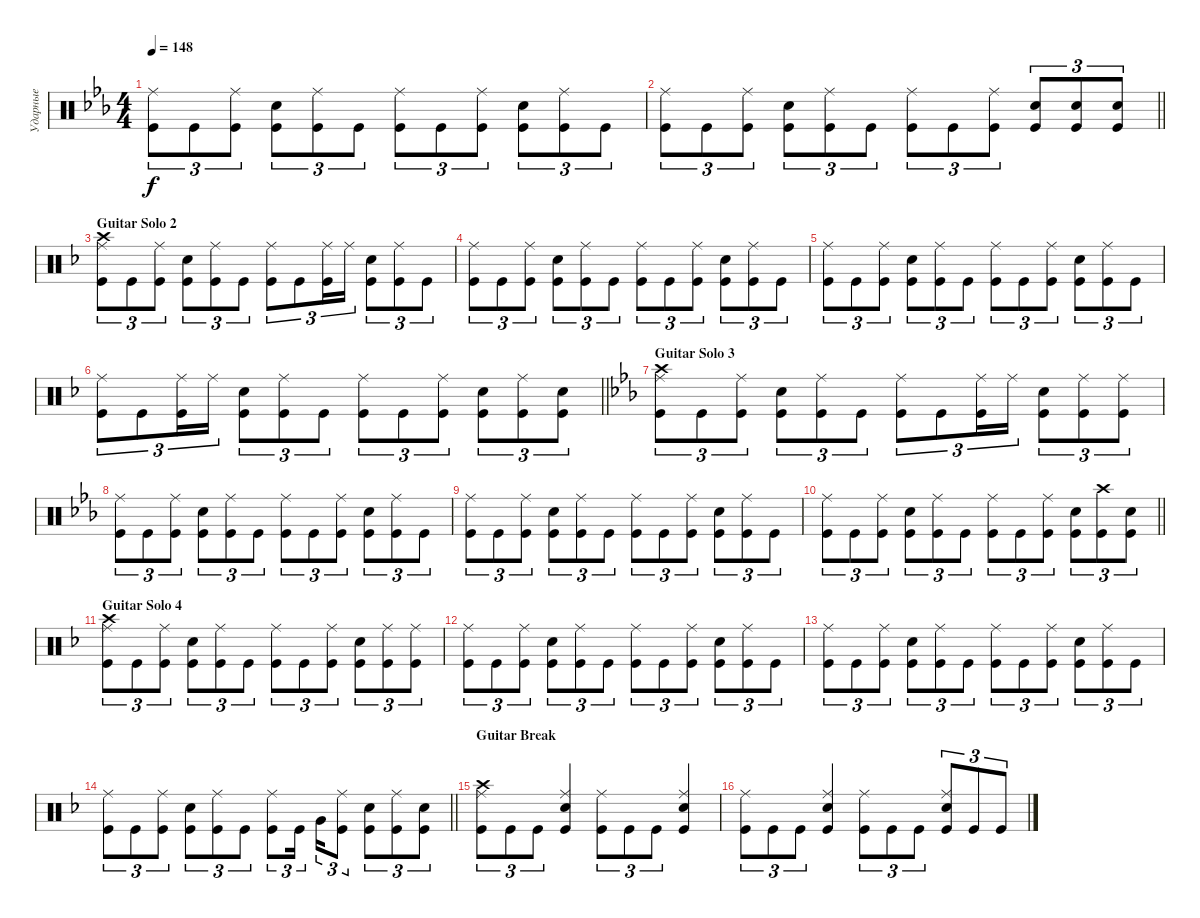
\track ("Ударные" "Ударные") {instrument percussion}
\staff {score}
\articulation defaults
\ts (4 4)
\tempo 148
\clef neutral
\ks cminor
("Kick (hit)" "Ride (middle)").8{tu (3 2) dy f} "Kick (hit)".8{tu (3 2)} ("Kick (hit)" "Ride (middle)").8{tu (3 2)} ("Kick (hit)" "Snare (hit) 2").8{tu (3 2)} ("Kick (hit)" "Ride (middle)").8{tu (3 2)} "Kick (hit)".8{tu (3 2)} ("Kick (hit)" "Ride (middle)").8{tu (3 2)} "Kick (hit)".8{tu (3 2)} ("Kick (hit)" "Ride (middle)").8{tu (3 2)} ("Kick (hit)" "Snare (hit) 2").8{tu (3 2)} ("Kick (hit)" "Ride (middle)").8{tu (3 2)} "Kick (hit)".8{tu (3 2)} |
\barLineRight lightlight
("Kick (hit)" "Ride (middle)").8{tu (3 2)} "Kick (hit)".8{tu (3 2)} ("Kick (hit)" "Ride (middle)").8{tu (3 2)} ("Kick (hit)" "Snare (hit) 2").8{tu (3 2)} ("Kick (hit)" "Ride (middle)").8{tu (3 2)} "Kick (hit)".8{tu (3 2)} ("Kick (hit)" "Ride (middle)").8{tu (3 2)} "Kick (hit)".8{tu (3 2)} ("Kick (hit)" "Ride (middle)").8{tu (3 2)} ("Kick (hit)" "Snare (hit) 2").8{tu (3 2)} ("Kick (hit)" "Snare (hit) 2").8{tu (3 2)} ("Kick (hit)" "Snare (hit) 2").8{tu (3 2)} |
\section ("" "Guitar Solo 2")
\ks dminor
("Kick (hit)" "Ride (middle)" "Crash high (hit)").8{tu (3 2)} "Kick (hit)".8{tu (3 2)} ("Kick (hit)" "Ride (middle)").8{tu (3 2)} ("Kick (hit)" "Snare (hit) 2").8{tu (3 2)} ("Kick (hit)" "Ride (middle)").8{tu (3 2)} "Kick (hit)".8{tu (3 2)} ("Kick (hit)" "Ride (middle)").8{tu (3 2)} "Kick (hit)".8{tu (3 2)} ("Kick (hit)" "Ride (middle)").16{tu (3 2)} "Ride (middle)".16{tu (3 2)} ("Kick (hit)" "Snare (hit) 2").8{tu (3 2)} ("Kick (hit)" "Ride (middle)").8{tu (3 2)} "Kick (hit)".8{tu (3 2)} |
("Kick (hit)" "Ride (middle)").8{tu (3 2)} "Kick (hit)".8{tu (3 2)} ("Kick (hit)" "Ride (middle)").8{tu (3 2)} ("Kick (hit)" "Snare (hit) 2").8{tu (3 2)} ("Kick (hit)" "Ride (middle)").8{tu (3 2)} "Kick (hit)".8{tu (3 2)} ("Kick (hit)" "Ride (middle)").8{tu (3 2)} "Kick (hit)".8{tu (3 2)} ("Kick (hit)" "Ride (middle)").8{tu (3 2)} ("Kick (hit)" "Snare (hit) 2").8{tu (3 2)} ("Kick (hit)" "Ride (middle)").8{tu (3 2)} "Kick (hit)".8{tu (3 2)} |
("Kick (hit)" "Ride (middle)").8{tu (3 2)} "Kick (hit)".8{tu (3 2)} ("Kick (hit)" "Ride (middle)").8{tu (3 2)} ("Kick (hit)" "Snare (hit) 2").8{tu (3 2)} ("Kick (hit)" "Ride (middle)").8{tu (3 2)} "Kick (hit)".8{tu (3 2)} ("Kick (hit)" "Ride (middle)").8{tu (3 2)} "Kick (hit)".8{tu (3 2)} ("Kick (hit)" "Ride (middle)").8{tu (3 2)} ("Kick (hit)" "Snare (hit) 2").8{tu (3 2)} ("Kick (hit)" "Ride (middle)").8{tu (3 2)} "Kick (hit)".8{tu (3 2)} |
\barLineRight lightlight
("Kick (hit)" "Ride (middle)").8{tu (3 2)} "Kick (hit)".8{tu (3 2)} ("Kick (hit)" "Ride (middle)").16{tu (3 2)} "Ride (middle)".16{tu (3 2)} ("Kick (hit)" "Snare (hit) 2").8{tu (3 2)} ("Kick (hit)" "Ride (middle)").8{tu (3 2)} "Kick (hit)".8{tu (3 2)} ("Kick (hit)" "Ride (middle)").8{tu (3 2)} "Kick (hit)".8{tu (3 2)} ("Kick (hit)" "Ride (middle)").8{tu (3 2)} ("Kick (hit)" "Snare (hit) 2").8{tu (3 2)} ("Kick (hit)" "Ride (middle)").8{tu (3 2)} ("Kick (hit)" "Snare (hit) 2").8{tu (3 2)} |
\section ("" "Guitar Solo 3")
\ks cminor
("Kick (hit)" "Ride (middle)" "Crash high (hit)").8{tu (3 2)} "Kick (hit)".8{tu (3 2)} ("Kick (hit)" "Ride (middle)").8{tu (3 2)} ("Kick (hit)" "Snare (hit) 2").8{tu (3 2)} ("Kick (hit)" "Ride (middle)").8{tu (3 2)} "Kick (hit)".8{tu (3 2)} ("Kick (hit)" "Ride (middle)").8{tu (3 2)} "Kick (hit)".8{tu (3 2)} ("Kick (hit)" "Ride (middle)").16{tu (3 2)} "Ride (middle)".16{tu (3 2)} ("Kick (hit)" "Snare (hit) 2").8{tu (3 2)} ("Kick (hit)" "Ride (middle)").8{tu (3 2)} ("Kick (hit)" "Ride (middle)").8{tu (3 2)} |
("Kick (hit)" "Ride (middle)").8{tu (3 2)} "Kick (hit)".8{tu (3 2)} ("Kick (hit)" "Ride (middle)").8{tu (3 2)} ("Kick (hit)" "Snare (hit) 2").8{tu (3 2)} ("Kick (hit)" "Ride (middle)").8{tu (3 2)} "Kick (hit)".8{tu (3 2)} ("Kick (hit)" "Ride (middle)").8{tu (3 2)} "Kick (hit)".8{tu (3 2)} ("Kick (hit)" "Ride (middle)").8{tu (3 2)} ("Kick (hit)" "Snare (hit) 2").8{tu (3 2)} ("Kick (hit)" "Ride (middle)").8{tu (3 2)} "Kick (hit)".8{tu (3 2)} |
("Kick (hit)" "Ride (middle)").8{tu (3 2)} "Kick (hit)".8{tu (3 2)} ("Kick (hit)" "Ride (middle)").8{tu (3 2)} ("Kick (hit)" "Snare (hit) 2").8{tu (3 2)} ("Kick (hit)" "Ride (middle)").8{tu (3 2)} "Kick (hit)".8{tu (3 2)} ("Kick (hit)" "Ride (middle)").8{tu (3 2)} "Kick (hit)".8{tu (3 2)} ("Kick (hit)" "Ride (middle)").8{tu (3 2)} ("Kick (hit)" "Snare (hit) 2").8{tu (3 2)} ("Kick (hit)" "Ride (middle)").8{tu (3 2)} "Kick (hit)".8{tu (3 2)} |
\barLineRight lightlight
("Kick (hit)" "Ride (middle)").8{tu (3 2)} "Kick (hit)".8{tu (3 2)} ("Kick (hit)" "Ride (middle)").8{tu (3 2)} ("Kick (hit)" "Snare (hit) 2").8{tu (3 2)} ("Kick (hit)" "Ride (middle)").8{tu (3 2)} "Kick (hit)".8{tu (3 2)} ("Kick (hit)" "Ride (middle)").8{tu (3 2)} "Kick (hit)".8{tu (3 2)} ("Kick (hit)" "Ride (middle)").8{tu (3 2)} ("Kick (hit)" "Snare (hit) 2").8{tu (3 2)} ("Kick (hit)" "Crash high (hit)").8{tu (3 2)} ("Kick (hit)" "Snare (hit) 2").8{tu (3 2)} |
\section ("" "Guitar Solo 4")
\ks dminor
("Kick (hit)" "Ride (middle)" "Crash high (hit)").8{tu (3 2)} "Kick (hit)".8{tu (3 2)} ("Kick (hit)" "Ride (middle)").8{tu (3 2)} ("Kick (hit)" "Snare (hit) 2").8{tu (3 2)} ("Kick (hit)" "Ride (middle)").8{tu (3 2)} "Kick (hit)".8{tu (3 2)} ("Kick (hit)" "Ride (middle)").8{tu (3 2)} "Kick (hit)".8{tu (3 2)} ("Kick (hit)" "Ride (middle)").8{tu (3 2)} ("Kick (hit)" "Snare (hit) 2").8{tu (3 2)} ("Kick (hit)" "Ride (middle)").8{tu (3 2)} ("Kick (hit)" "Ride (middle)").8{tu (3 2)} |
("Kick (hit)" "Ride (middle)").8{tu (3 2)} "Kick (hit)".8{tu (3 2)} ("Kick (hit)" "Ride (middle)").8{tu (3 2)} ("Kick (hit)" "Snare (hit) 2").8{tu (3 2)} ("Kick (hit)" "Ride (middle)").8{tu (3 2)} "Kick (hit)".8{tu (3 2)} ("Kick (hit)" "Ride (middle)").8{tu (3 2)} "Kick (hit)".8{tu (3 2)} ("Kick (hit)" "Ride (middle)").8{tu (3 2)} ("Kick (hit)" "Snare (hit) 2").8{tu (3 2)} ("Kick (hit)" "Ride (middle)").8{tu (3 2)} "Kick (hit)".8{tu (3 2)} |
("Kick (hit)" "Ride (middle)").8{tu (3 2)} "Kick (hit)".8{tu (3 2)} ("Kick (hit)" "Ride (middle)").8{tu (3 2)} ("Kick (hit)" "Snare (hit) 2").8{tu (3 2)} ("Kick (hit)" "Ride (middle)").8{tu (3 2)} "Kick (hit)".8{tu (3 2)} ("Kick (hit)" "Ride (middle)").8{tu (3 2)} "Kick (hit)".8{tu (3 2)} ("Kick (hit)" "Ride (middle)").8{tu (3 2)} ("Kick (hit)" "Snare (hit) 2").8{tu (3 2)} ("Kick (hit)" "Ride (middle)").8{tu (3 2)} "Kick (hit)".8{tu (3 2)} |
\barLineRight lightlight
("Kick (hit)" "Ride (middle)").8{tu (3 2)} "Kick (hit)".8{tu (3 2)} ("Kick (hit)" "Ride (middle)").8{tu (3 2)} ("Kick (hit)" "Snare (hit) 2").8{tu (3 2)} ("Kick (hit)" "Ride (middle)").8{tu (3 2)} "Kick (hit)".8{tu (3 2)} ("Kick (hit)" "Ride (middle)").8{tu (3 2)} "Kick (hit)".16{tu (3 2) beam splitsecondary} "Very Low Tom (hit)".16{tu (3 2)} ("Kick (hit)" "Ride (middle)").8{tu (3 2)} ("Kick (hit)" "Snare (hit) 2").8{tu (3 2)} ("Kick (hit)" "Ride (middle)").8{tu (3 2)} ("Kick (hit)" "Snare (hit) 2").8{tu (3 2)} |
\section ("" "Guitar Break")
("Kick (hit)" "Ride (middle)" "Crash high (hit)").8{tu (3 2)} "Kick (hit)".8{tu (3 2)} "Kick (hit)".8{tu (3 2)} ("Kick (hit)" "Snare (hit) 2" "Ride (middle)").4 ("Kick (hit)" "Ride (middle)").8{tu (3 2)} "Kick (hit)".8{tu (3 2)} "Kick (hit)".8{tu (3 2)} ("Kick (hit)" "Snare (hit) 2" "Ride (middle)").4 |
("Kick (hit)" "Ride (middle)").8{tu (3 2)} "Kick (hit)".8{tu (3 2)} "Kick (hit)".8{tu (3 2)} ("Kick (hit)" "Snare (hit) 2" "Ride (middle)").4 ("Kick (hit)" "Ride (middle)").8{tu (3 2)} "Kick (hit)".8{tu (3 2)} "Kick (hit)".8{tu (3 2)} ("Kick (hit)" "Snare (hit) 2" "Ride (middle)").8{tu (3 2)} "Kick (hit)".8{tu (3 2)} "Kick (hit)".8{tu (3 2)}
